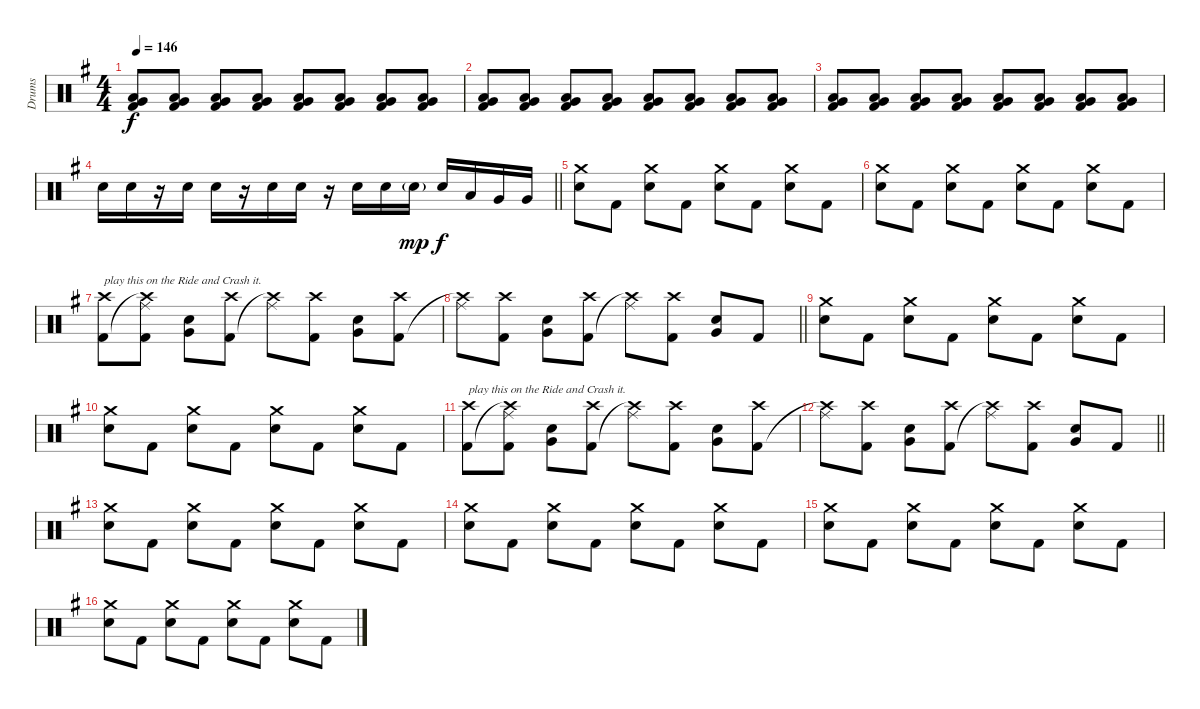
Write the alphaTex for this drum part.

\track ("Drums" "Drums") {instrument percussion}
\staff {score}
\articulation defaults
\ts (4 4)
\tempo 146
\clef neutral
\ks g
("Low Tom (hit)" "Very Low Tom (hit)" "Kick (hit) 2").8{dy f volume 6} ("Low Tom (hit)" "Very Low Tom (hit)" "Kick (hit) 2").8{volume 14} ("Low Tom (hit)" "Very Low Tom (hit)" "Kick (hit) 2").8 ("Low Tom (hit)" "Very Low Tom (hit)" "Kick (hit) 2").8 ("Low Tom (hit)" "Very Low Tom (hit)" "Kick (hit) 2").8 ("Low Tom (hit)" "Very Low Tom (hit)" "Kick (hit) 2").8 ("Low Tom (hit)" "Very Low Tom (hit)" "Kick (hit) 2").8 ("Low Tom (hit)" "Very Low Tom (hit)" "Kick (hit) 2").8 |
("Low Tom (hit)" "Very Low Tom (hit)" "Kick (hit) 2").8 ("Low Tom (hit)" "Very Low Tom (hit)" "Kick (hit) 2").8 ("Low Tom (hit)" "Very Low Tom (hit)" "Kick (hit) 2").8 ("Low Tom (hit)" "Very Low Tom (hit)" "Kick (hit) 2").8 ("Low Tom (hit)" "Very Low Tom (hit)" "Kick (hit) 2").8 ("Low Tom (hit)" "Very Low Tom (hit)" "Kick (hit) 2").8 ("Low Tom (hit)" "Very Low Tom (hit)" "Kick (hit) 2").8 ("Low Tom (hit)" "Very Low Tom (hit)" "Kick (hit) 2").8 |
("Low Tom (hit)" "Very Low Tom (hit)" "Kick (hit) 2").8 ("Low Tom (hit)" "Very Low Tom (hit)" "Kick (hit) 2").8 ("Low Tom (hit)" "Very Low Tom (hit)" "Kick (hit) 2").8 ("Low Tom (hit)" "Very Low Tom (hit)" "Kick (hit) 2").8 ("Low Tom (hit)" "Very Low Tom (hit)" "Kick (hit) 2").8 ("Low Tom (hit)" "Very Low Tom (hit)" "Kick (hit) 2").8 ("Low Tom (hit)" "Very Low Tom (hit)" "Kick (hit) 2").8 ("Low Tom (hit)" "Very Low Tom (hit)" "Kick (hit) 2").8 |
\barLineRight lightlight "Electric Snare (hit)".16 "Electric Snare (hit)".16
r.16 "Electric Snare (hit)".16 "Electric Snare (hit)".16 r.16 "Electric Snare (hit)".16 "Electric Snare (hit)".16 r.16 "Electric Snare (hit)".16 "Electric Snare (hit)".16 "Electric Snare (hit)"{g}.16{dy mp} "Electric Snare (hit)".16{dy f} "Low Tom (hit)".16 "Very Low Tom (hit)".16 "Very Low Tom (hit)".16 |
("Crash medium (hit)" "Electric Snare (hit)").8 "Kick (hit) 2".8 ("Crash medium (hit)" "Electric Snare (hit)").8 "Kick (hit) 2".8 ("Crash medium (hit)" "Electric Snare (hit)").8 "Kick (hit) 2".8 ("Crash medium (hit)" "Electric Snare (hit)").8 "Kick (hit) 2".8 |
("Crash medium (hit)" "Electric Snare (hit)").8 "Kick (hit) 2".8 ("Crash medium (hit)" "Electric Snare (hit)").8 "Kick (hit) 2".8 ("Crash medium (hit)" "Electric Snare (hit)").8 "Kick (hit) 2".8 ("Crash medium (hit)" "Electric Snare (hit)").8 "Kick (hit) 2".8 |
("Crash high (hit)" "Kick (hit) 2").8{txt "play this on the Ride and Crash it."} ("Ride (middle)" "Crash high (hit)"{t} "Kick (hit) 2").8 ("Very Low Tom (hit)" "Electric Snare (hit)").8 ("Crash high (hit)" "Kick (hit) 2").8 ("Ride (middle)" "Crash high (hit)"{t}).8 ("Crash high (hit)" "Kick (hit) 2").8 ("Very Low Tom (hit)" "Electric Snare (hit)").8 ("Crash high (hit)" "Kick (hit) 2").8 |
\barLineRight lightlight
("Ride (middle)" "Crash high (hit)"{t}).8 ("Crash high (hit)" "Kick (hit) 2").8 ("Very Low Tom (hit)" "Electric Snare (hit)").8 ("Crash high (hit)" "Kick (hit) 2").8 ("Ride (middle)" "Crash high (hit)"{t}).8 ("Crash high (hit)" "Kick (hit) 2").8 ("Very Low Tom (hit)" "Electric Snare (hit)").8 "Kick (hit) 2".8 |
("Crash medium (hit)" "Electric Snare (hit)").8 "Kick (hit) 2".8 ("Crash medium (hit)" "Electric Snare (hit)").8 "Kick (hit) 2".8 ("Crash medium (hit)" "Electric Snare (hit)").8 "Kick (hit) 2".8 ("Crash medium (hit)" "Electric Snare (hit)").8 "Kick (hit) 2".8 |
("Crash medium (hit)" "Electric Snare (hit)").8 "Kick (hit) 2".8 ("Crash medium (hit)" "Electric Snare (hit)").8 "Kick (hit) 2".8 ("Crash medium (hit)" "Electric Snare (hit)").8 "Kick (hit) 2".8 ("Crash medium (hit)" "Electric Snare (hit)").8 "Kick (hit) 2".8 |
("Crash high (hit)" "Kick (hit) 2").8{txt "play this on the Ride and Crash it."} ("Ride (middle)" "Crash high (hit)"{t} "Kick (hit) 2").8 ("Very Low Tom (hit)" "Electric Snare (hit)").8 ("Crash high (hit)" "Kick (hit) 2").8 ("Ride (middle)" "Crash high (hit)"{t}).8 ("Crash high (hit)" "Kick (hit) 2").8 ("Very Low Tom (hit)" "Electric Snare (hit)").8 ("Crash high (hit)" "Kick (hit) 2").8 |
\barLineRight lightlight
("Ride (middle)" "Crash high (hit)"{t}).8 ("Crash high (hit)" "Kick (hit) 2").8 ("Very Low Tom (hit)" "Electric Snare (hit)").8 ("Crash high (hit)" "Kick (hit) 2").8 ("Ride (middle)" "Crash high (hit)"{t}).8 ("Crash high (hit)" "Kick (hit) 2").8 ("Very Low Tom (hit)" "Electric Snare (hit)").8 "Kick (hit) 2".8 |
("Crash medium (hit)" "Electric Snare (hit)").8 "Kick (hit) 2".8 ("Crash medium (hit)" "Electric Snare (hit)").8 "Kick (hit) 2".8 ("Crash medium (hit)" "Electric Snare (hit)").8 "Kick (hit) 2".8 ("Crash medium (hit)" "Electric Snare (hit)").8 "Kick (hit) 2".8 |
("Crash medium (hit)" "Electric Snare (hit)").8 "Kick (hit) 2".8 ("Crash medium (hit)" "Electric Snare (hit)").8 "Kick (hit) 2".8 ("Crash medium (hit)" "Electric Snare (hit)").8 "Kick (hit) 2".8 ("Crash medium (hit)" "Electric Snare (hit)").8 "Kick (hit) 2".8 |
("Crash medium (hit)" "Electric Snare (hit)").8 "Kick (hit) 2".8 ("Crash medium (hit)" "Electric Snare (hit)").8 "Kick (hit) 2".8 ("Crash medium (hit)" "Electric Snare (hit)").8 "Kick (hit) 2".8 ("Crash medium (hit)" "Electric Snare (hit)").8 "Kick (hit) 2".8 |
("Crash medium (hit)" "Electric Snare (hit)").8 "Kick (hit) 2".8 ("Crash medium (hit)" "Electric Snare (hit)").8 "Kick (hit) 2".8 ("Crash medium (hit)" "Electric Snare (hit)").8 "Kick (hit) 2".8 ("Crash medium (hit)" "Electric Snare (hit)").8 "Kick (hit) 2".8
